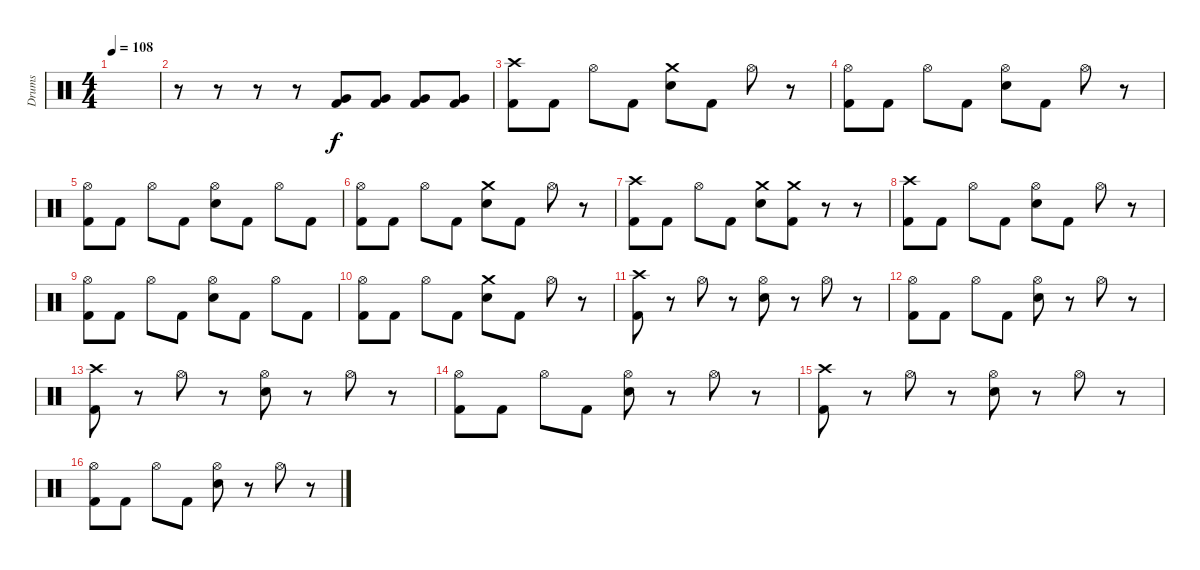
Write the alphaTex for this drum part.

\track ("Drums" "Drums") {instrument percussion}
\staff {score}
\articulation defaults
\ts (4 4)
\tempo 108
\clef neutral
\ks c
|
r.8 r.8 r.8 r.8 ("Kick (hit) 2" "Very Low Tom (hit)").8 ("Kick (hit) 2" "Very Low Tom (hit)").8 ("Kick (hit) 2" "Very Low Tom (hit)").8 ("Kick (hit) 2" "Very Low Tom (hit)").8 |
("Crash high (hit)" "Kick (hit) 2").8 "Kick (hit) 2".8 "Hi-Hat (open)".8 "Kick (hit) 2".8 ("Crash medium (hit)" "Snare (hit) 2").8 "Kick (hit) 2".8 "Hi-Hat (open)".8 r.8 |
("Hi-Hat (open)" "Kick (hit) 2").8 "Kick (hit) 2".8 "Hi-Hat (open)".8 "Kick (hit) 2".8 ("Hi-Hat (open)" "Snare (hit) 2").8 "Kick (hit) 2".8 "Hi-Hat (open)".8 r.8 |
("Hi-Hat (open)" "Kick (hit) 2").8 "Kick (hit) 2".8 "Hi-Hat (open)".8 "Kick (hit) 2".8 ("Hi-Hat (open)" "Snare (hit) 2").8 "Kick (hit) 2".8 "Hi-Hat (open)".8 "Kick (hit) 2".8 |
("Hi-Hat (open)" "Kick (hit) 2").8 "Kick (hit) 2".8 "Hi-Hat (open)".8 "Kick (hit) 2".8 ("Crash medium (hit)" "Snare (hit) 2").8 "Kick (hit) 2".8 "Hi-Hat (open)".8 r.8 |
("Crash high (hit)" "Kick (hit) 2").8 "Kick (hit) 2".8 "Hi-Hat (open)".8 "Kick (hit) 2".8 ("Crash medium (hit)" "Snare (hit) 2").8 ("Crash medium (hit)" "Kick (hit) 2").8 r.8 r.8 |
("Crash high (hit)" "Kick (hit) 2").8 "Kick (hit) 2".8 "Hi-Hat (open)".8 "Kick (hit) 2".8 ("Hi-Hat (open)" "Snare (hit) 2").8 "Kick (hit) 2".8 "Hi-Hat (open)".8 r.8 |
("Hi-Hat (open)" "Kick (hit) 2").8 "Kick (hit) 2".8 "Hi-Hat (open)".8 "Kick (hit) 2".8 ("Hi-Hat (open)" "Snare (hit) 2").8 "Kick (hit) 2".8 "Hi-Hat (open)".8 "Kick (hit) 2".8 |
("Hi-Hat (open)" "Kick (hit) 2").8 "Kick (hit) 2".8 "Hi-Hat (open)".8 "Kick (hit) 2".8 ("Crash medium (hit)" "Snare (hit) 2").8 "Kick (hit) 2".8 "Hi-Hat (open)".8 r.8 |
("Crash high (hit)" "Kick (hit) 2").8 r.8 "Hi-Hat (open)".8 r.8 ("Hi-Hat (open)" "Snare (hit) 2").8 r.8 "Hi-Hat (open)".8 r.8 |
("Hi-Hat (open)" "Kick (hit) 2").8 "Kick (hit) 2".8 "Hi-Hat (open)".8 "Kick (hit) 2".8 ("Hi-Hat (open)" "Snare (hit) 2").8 r.8 "Hi-Hat (open)".8 r.8 |
("Crash high (hit)" "Kick (hit) 2").8 r.8 "Hi-Hat (open)".8 r.8 ("Hi-Hat (open)" "Snare (hit) 2").8 r.8 "Hi-Hat (open)".8 r.8 |
("Hi-Hat (open)" "Kick (hit) 2").8 "Kick (hit) 2".8 "Hi-Hat (open)".8 "Kick (hit) 2".8 ("Hi-Hat (open)" "Snare (hit) 2").8 r.8 "Hi-Hat (open)".8 r.8 |
("Crash high (hit)" "Kick (hit) 2").8 r.8 "Hi-Hat (open)".8 r.8 ("Hi-Hat (open)" "Snare (hit) 2").8 r.8 "Hi-Hat (open)".8 r.8 |
("Hi-Hat (open)" "Kick (hit) 2").8 "Kick (hit) 2".8 "Hi-Hat (open)".8 "Kick (hit) 2".8 ("Hi-Hat (open)" "Snare (hit) 2").8 r.8 "Hi-Hat (open)".8 r.8
